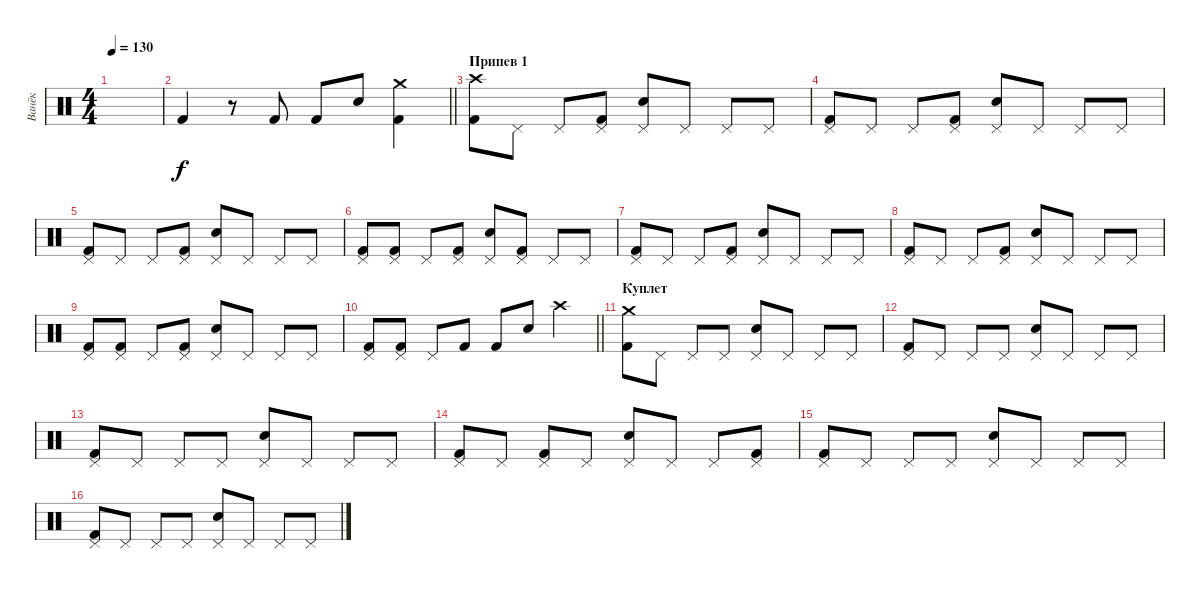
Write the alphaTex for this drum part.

\track ("Ванёк" "Ванёк") {instrument percussion}
\staff {score}
\articulation defaults
\ts (4 4)
\tempo 130
\clef neutral
\ks c
|
\barLineRight lightlight "Kick (hit) 2".4
r.8 "Kick (hit) 2".8 "Kick (hit) 2".8 "Snare (hit) 2".8 ("Crash medium (hit)" "Kick (hit) 2").4 |
\section ("" "Припев 1")
("Crash high (hit)" "Kick (hit) 2").8 "Pedal Hi-Hat (hit)".8 "Pedal Hi-Hat (hit)".8 ("Pedal Hi-Hat (hit)" "Kick (hit) 2").8 ("Pedal Hi-Hat (hit)" "Snare (hit) 2").8 "Pedal Hi-Hat (hit)".8 "Pedal Hi-Hat (hit)".8 "Pedal Hi-Hat (hit)".8 |
("Pedal Hi-Hat (hit)" "Kick (hit) 2").8 "Pedal Hi-Hat (hit)".8 "Pedal Hi-Hat (hit)".8 ("Pedal Hi-Hat (hit)" "Kick (hit) 2").8 ("Pedal Hi-Hat (hit)" "Snare (hit) 2").8 "Pedal Hi-Hat (hit)".8 "Pedal Hi-Hat (hit)".8 "Pedal Hi-Hat (hit)".8 |
("Pedal Hi-Hat (hit)" "Kick (hit) 2").8 "Pedal Hi-Hat (hit)".8 "Pedal Hi-Hat (hit)".8 ("Pedal Hi-Hat (hit)" "Kick (hit) 2").8 ("Pedal Hi-Hat (hit)" "Snare (hit) 2").8 "Pedal Hi-Hat (hit)".8 "Pedal Hi-Hat (hit)".8 "Pedal Hi-Hat (hit)".8 |
("Pedal Hi-Hat (hit)" "Kick (hit) 2").8 ("Pedal Hi-Hat (hit)" "Kick (hit) 2").8 "Pedal Hi-Hat (hit)".8 ("Pedal Hi-Hat (hit)" "Kick (hit) 2").8 ("Pedal Hi-Hat (hit)" "Snare (hit) 2").8 ("Pedal Hi-Hat (hit)" "Kick (hit) 2").8 "Pedal Hi-Hat (hit)".8 "Pedal Hi-Hat (hit)".8 |
("Pedal Hi-Hat (hit)" "Kick (hit) 2").8 "Pedal Hi-Hat (hit)".8 "Pedal Hi-Hat (hit)".8 ("Pedal Hi-Hat (hit)" "Kick (hit) 2").8 ("Pedal Hi-Hat (hit)" "Snare (hit) 2").8 "Pedal Hi-Hat (hit)".8 "Pedal Hi-Hat (hit)".8 "Pedal Hi-Hat (hit)".8 |
("Pedal Hi-Hat (hit)" "Kick (hit) 2").8 "Pedal Hi-Hat (hit)".8 "Pedal Hi-Hat (hit)".8 ("Pedal Hi-Hat (hit)" "Kick (hit) 2").8 ("Pedal Hi-Hat (hit)" "Snare (hit) 2").8 "Pedal Hi-Hat (hit)".8 "Pedal Hi-Hat (hit)".8 "Pedal Hi-Hat (hit)".8 |
("Pedal Hi-Hat (hit)" "Kick (hit) 2").8 ("Pedal Hi-Hat (hit)" "Kick (hit) 2").8 "Pedal Hi-Hat (hit)".8 ("Pedal Hi-Hat (hit)" "Kick (hit) 2").8 ("Pedal Hi-Hat (hit)" "Snare (hit) 2").8 "Pedal Hi-Hat (hit)".8 "Pedal Hi-Hat (hit)".8 "Pedal Hi-Hat (hit)".8 |
\barLineRight lightlight
("Pedal Hi-Hat (hit)" "Kick (hit) 2").8 ("Pedal Hi-Hat (hit)" "Kick (hit) 2").8 "Pedal Hi-Hat (hit)".8 "Kick (hit) 2".8 "Kick (hit) 2".8 "Snare (hit) 2".8 "Crash high (hit)".4 |
\section ("" "Куплет")
("Crash medium (hit)" "Kick (hit) 2").8 "Pedal Hi-Hat (hit)".8 "Pedal Hi-Hat (hit)".8 "Pedal Hi-Hat (hit)".8 ("Pedal Hi-Hat (hit)" "Snare (hit) 2").8 "Pedal Hi-Hat (hit)".8 "Pedal Hi-Hat (hit)".8 "Pedal Hi-Hat (hit)".8 |
("Pedal Hi-Hat (hit)" "Kick (hit) 2").8 "Pedal Hi-Hat (hit)".8 "Pedal Hi-Hat (hit)".8 "Pedal Hi-Hat (hit)".8 ("Pedal Hi-Hat (hit)" "Snare (hit) 2").8 "Pedal Hi-Hat (hit)".8 "Pedal Hi-Hat (hit)".8 "Pedal Hi-Hat (hit)".8 |
("Pedal Hi-Hat (hit)" "Kick (hit) 2").8 "Pedal Hi-Hat (hit)".8 "Pedal Hi-Hat (hit)".8 "Pedal Hi-Hat (hit)".8 ("Pedal Hi-Hat (hit)" "Snare (hit) 2").8 "Pedal Hi-Hat (hit)".8 "Pedal Hi-Hat (hit)".8 "Pedal Hi-Hat (hit)".8 |
("Pedal Hi-Hat (hit)" "Kick (hit) 2").8 "Pedal Hi-Hat (hit)".8 ("Pedal Hi-Hat (hit)" "Kick (hit) 2").8 "Pedal Hi-Hat (hit)".8 ("Pedal Hi-Hat (hit)" "Snare (hit) 2").8 "Pedal Hi-Hat (hit)".8 "Pedal Hi-Hat (hit)".8 ("Pedal Hi-Hat (hit)" "Kick (hit) 2").8 |
("Pedal Hi-Hat (hit)" "Kick (hit) 2").8 "Pedal Hi-Hat (hit)".8 "Pedal Hi-Hat (hit)".8 "Pedal Hi-Hat (hit)".8 ("Pedal Hi-Hat (hit)" "Snare (hit) 2").8 "Pedal Hi-Hat (hit)".8 "Pedal Hi-Hat (hit)".8 "Pedal Hi-Hat (hit)".8 |
("Pedal Hi-Hat (hit)" "Kick (hit) 2").8 "Pedal Hi-Hat (hit)".8 "Pedal Hi-Hat (hit)".8 "Pedal Hi-Hat (hit)".8 ("Pedal Hi-Hat (hit)" "Snare (hit) 2").8 "Pedal Hi-Hat (hit)".8 "Pedal Hi-Hat (hit)".8 "Pedal Hi-Hat (hit)".8
